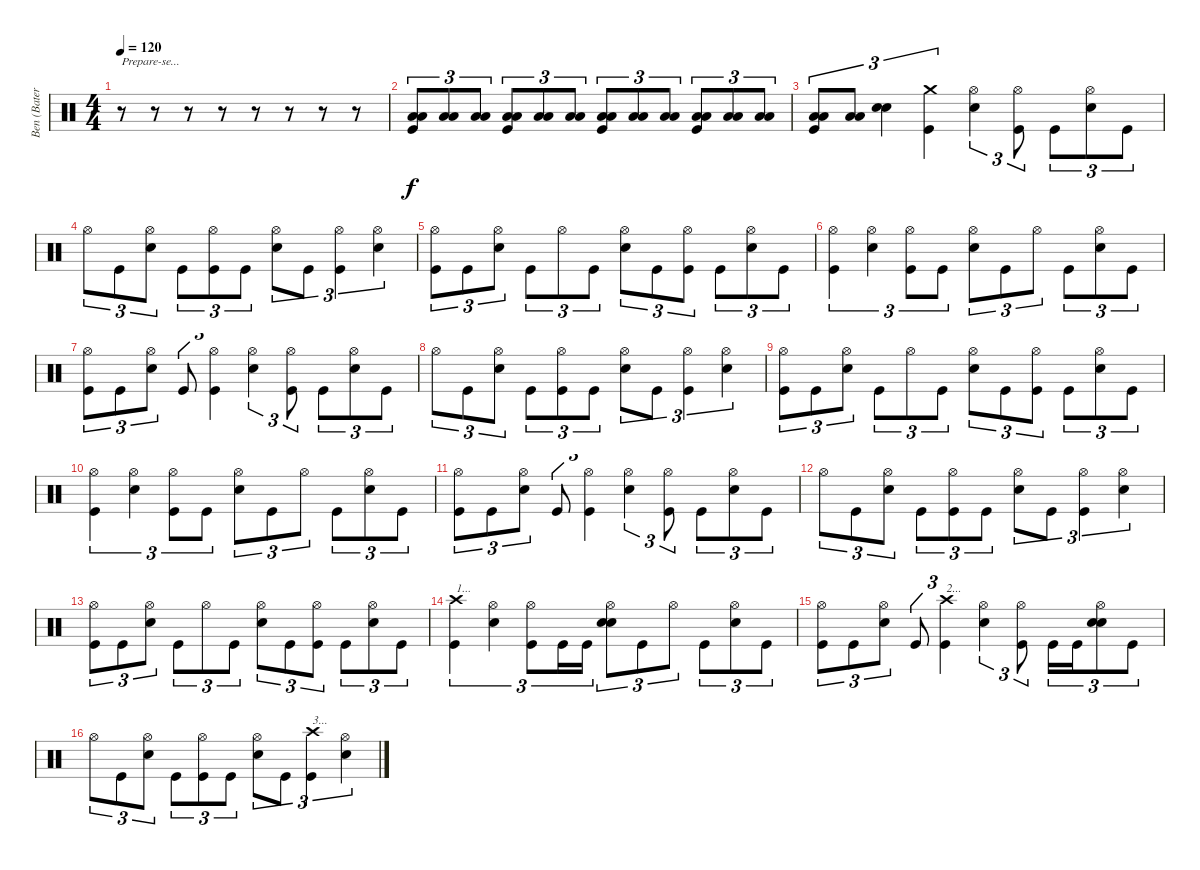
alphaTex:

\track ("Ben (Bateria)" "Ben (Bater") {instrument percussion}
\staff {score}
\articulation defaults
\ts (4 4)
\tempo 120
\clef neutral
\ks c
r.8{txt "Prepare-se..." dy f} r.8 r.8 r.8 r.8 r.8 r.8 r.8 |
("Kick (hit)" "Low Tom (hit)" "Low Tom (hit)").8{tu (3 2) bu 30} ("Low Tom (hit)" "Low Tom (hit)").8{tu (3 2)} ("Low Tom (hit)" "Low Tom (hit)").8{tu (3 2) bu 30} ("Kick (hit)" "Low Tom (hit)" "Low Tom (hit)").8{tu (3 2)} ("Low Tom (hit)" "Low Tom (hit)").8{tu (3 2)} ("Low Tom (hit)" "Low Tom (hit)").8{tu (3 2)} ("Kick (hit)" "Low Tom (hit)" "Low Tom (hit)").8{tu (3 2) bu 30} ("Low Tom (hit)" "Low Tom (hit)").8{tu (3 2)} ("Low Tom (hit)" "Low Tom (hit)").8{tu (3 2)} ("Kick (hit)" "Low Tom (hit)" "Low Tom (hit)").8{tu (3 2) bu 30} ("Low Tom (hit)" "Low Tom (hit)").8{tu (3 2)} ("Low Tom (hit)" "Low Tom (hit)").8{tu (3 2)} |
("Kick (hit)" "Low Tom (hit)" "Low Tom (hit)").8{tu (3 2) bu 30} ("Low Tom (hit)" "Low Tom (hit)").8{tu (3 2)} ("Snare (hit) 2" "Snare (hit) 2").4{tu (3 2) bu 60} ("Kick (hit)" "Crash medium (hit)").4{tu (3 2)} ("Snare (hit) 2" "Hi-Hat (open)").4{tu (3 2)} ("Kick (hit)" "Hi-Hat (open)").8{tu (3 2)} "Kick (hit)".8{tu (3 2)} ("Snare (hit) 2" "Hi-Hat (open)").8{tu (3 2)} "Kick (hit)".8{tu (3 2)} |
"Hi-Hat (open)".8{tu (3 2)} "Kick (hit)".8{tu (3 2)} ("Snare (hit) 2" "Hi-Hat (open)").8{tu (3 2)} "Kick (hit)".8{tu (3 2)} ("Kick (hit)" "Hi-Hat (open)").8{tu (3 2)} "Kick (hit)".8{tu (3 2)} ("Snare (hit) 2" "Hi-Hat (open)").8{tu (3 2)} "Kick (hit)".8{tu (3 2)} ("Kick (hit)" "Hi-Hat (open)").4{tu (3 2)} ("Snare (hit) 2" "Hi-Hat (open)").4{tu (3 2)} |
("Kick (hit)" "Hi-Hat (open)").8{tu (3 2)} "Kick (hit)".8{tu (3 2)} ("Snare (hit) 2" "Hi-Hat (open)").8{tu (3 2)} "Kick (hit)".8{tu (3 2)} "Hi-Hat (open)".8{tu (3 2)} "Kick (hit)".8{tu (3 2)} ("Snare (hit) 2" "Hi-Hat (open)").8{tu (3 2)} "Kick (hit)".8{tu (3 2)} ("Kick (hit)" "Hi-Hat (open)").8{tu (3 2)} "Kick (hit)".8{tu (3 2)} ("Snare (hit) 2" "Hi-Hat (open)").8{tu (3 2)} "Kick (hit)".8{tu (3 2)} |
("Kick (hit)" "Hi-Hat (open)").4{tu (3 2)} ("Snare (hit) 2" "Hi-Hat (open)").4{tu (3 2)} ("Kick (hit)" "Hi-Hat (open)").8{tu (3 2)} "Kick (hit)".8{tu (3 2)} ("Snare (hit) 2" "Hi-Hat (open)").8{tu (3 2)} "Kick (hit)".8{tu (3 2)} "Hi-Hat (open)".8{tu (3 2)} "Kick (hit)".8{tu (3 2)} ("Snare (hit) 2" "Hi-Hat (open)").8{tu (3 2)} "Kick (hit)".8{tu (3 2)} |
("Kick (hit)" "Hi-Hat (open)").8{tu (3 2)} "Kick (hit)".8{tu (3 2)} ("Snare (hit) 2" "Hi-Hat (open)").8{tu (3 2)} "Kick (hit)".8{tu (3 2)} ("Kick (hit)" "Hi-Hat (open)").4{tu (3 2)} ("Snare (hit) 2" "Hi-Hat (open)").4{tu (3 2)} ("Kick (hit)" "Hi-Hat (open)").8{tu (3 2)} "Kick (hit)".8{tu (3 2)} ("Snare (hit) 2" "Hi-Hat (open)").8{tu (3 2)} "Kick (hit)".8{tu (3 2)} |
"Hi-Hat (open)".8{tu (3 2)} "Kick (hit)".8{tu (3 2)} ("Snare (hit) 2" "Hi-Hat (open)").8{tu (3 2)} "Kick (hit)".8{tu (3 2)} ("Kick (hit)" "Hi-Hat (open)").8{tu (3 2)} "Kick (hit)".8{tu (3 2)} ("Snare (hit) 2" "Hi-Hat (open)").8{tu (3 2)} "Kick (hit)".8{tu (3 2)} ("Kick (hit)" "Hi-Hat (open)").4{tu (3 2)} ("Snare (hit) 2" "Hi-Hat (open)").4{tu (3 2)} |
("Kick (hit)" "Hi-Hat (open)").8{tu (3 2)} "Kick (hit)".8{tu (3 2)} ("Snare (hit) 2" "Hi-Hat (open)").8{tu (3 2)} "Kick (hit)".8{tu (3 2)} "Hi-Hat (open)".8{tu (3 2)} "Kick (hit)".8{tu (3 2)} ("Snare (hit) 2" "Hi-Hat (open)").8{tu (3 2)} "Kick (hit)".8{tu (3 2)} ("Kick (hit)" "Hi-Hat (open)").8{tu (3 2)} "Kick (hit)".8{tu (3 2)} ("Snare (hit) 2" "Hi-Hat (open)").8{tu (3 2)} "Kick (hit)".8{tu (3 2)} |
("Kick (hit)" "Hi-Hat (open)").4{tu (3 2)} ("Snare (hit) 2" "Hi-Hat (open)").4{tu (3 2)} ("Kick (hit)" "Hi-Hat (open)").8{tu (3 2)} "Kick (hit)".8{tu (3 2)} ("Snare (hit) 2" "Hi-Hat (open)").8{tu (3 2)} "Kick (hit)".8{tu (3 2)} "Hi-Hat (open)".8{tu (3 2)} "Kick (hit)".8{tu (3 2)} ("Snare (hit) 2" "Hi-Hat (open)").8{tu (3 2)} "Kick (hit)".8{tu (3 2)} |
("Kick (hit)" "Hi-Hat (open)").8{tu (3 2)} "Kick (hit)".8{tu (3 2)} ("Snare (hit) 2" "Hi-Hat (open)").8{tu (3 2)} "Kick (hit)".8{tu (3 2)} ("Kick (hit)" "Hi-Hat (open)").4{tu (3 2)} ("Snare (hit) 2" "Hi-Hat (open)").4{tu (3 2)} ("Kick (hit)" "Hi-Hat (open)").8{tu (3 2)} "Kick (hit)".8{tu (3 2)} ("Snare (hit) 2" "Hi-Hat (open)").8{tu (3 2)} "Kick (hit)".8{tu (3 2)} |
"Hi-Hat (open)".8{tu (3 2)} "Kick (hit)".8{tu (3 2)} ("Snare (hit) 2" "Hi-Hat (open)").8{tu (3 2)} "Kick (hit)".8{tu (3 2)} ("Kick (hit)" "Hi-Hat (open)").8{tu (3 2)} "Kick (hit)".8{tu (3 2)} ("Snare (hit) 2" "Hi-Hat (open)").8{tu (3 2)} "Kick (hit)".8{tu (3 2)} ("Kick (hit)" "Hi-Hat (open)").4{tu (3 2)} ("Snare (hit) 2" "Hi-Hat (open)").4{tu (3 2)} |
("Kick (hit)" "Hi-Hat (open)").8{tu (3 2)} "Kick (hit)".8{tu (3 2)} ("Snare (hit) 2" "Hi-Hat (open)").8{tu (3 2)} "Kick (hit)".8{tu (3 2)} "Hi-Hat (open)".8{tu (3 2)} "Kick (hit)".8{tu (3 2)} ("Snare (hit) 2" "Hi-Hat (open)").8{tu (3 2)} "Kick (hit)".8{tu (3 2)} ("Kick (hit)" "Hi-Hat (open)").8{tu (3 2)} "Kick (hit)".8{tu (3 2)} ("Snare (hit) 2" "Hi-Hat (open)").8{tu (3 2)} "Kick (hit)".8{tu (3 2)} |
("Kick (hit)" "Crash high (hit)").4{tu (3 2) txt "1..."} ("Snare (hit) 2" "Hi-Hat (open)").4{tu (3 2)} ("Kick (hit)" "Hi-Hat (open)").8{tu (3 2)} "Kick (hit)".16{tu (3 2)} "Kick (hit)".16{tu (3 2)} ("Snare (hit) 2" "Snare (hit) 2" "Hi-Hat (open)").8{tu (3 2) bu 60} "Kick (hit)".8{tu (3 2)} "Hi-Hat (open)".8{tu (3 2)} "Kick (hit)".8{tu (3 2)} ("Snare (hit) 2" "Hi-Hat (open)").8{tu (3 2)} "Kick (hit)".8{tu (3 2)} |
("Kick (hit)" "Hi-Hat (open)").8{tu (3 2)} "Kick (hit)".8{tu (3 2)} ("Snare (hit) 2" "Hi-Hat (open)").8{tu (3 2)} "Kick (hit)".8{tu (3 2)} ("Kick (hit)" "Crash high (hit)").4{tu (3 2) txt "2..."} ("Snare (hit) 2" "Hi-Hat (open)").4{tu (3 2)} ("Kick (hit)" "Hi-Hat (open)").8{tu (3 2)} "Kick (hit)".16{tu (3 2)} "Kick (hit)".16{tu (3 2)} ("Snare (hit) 2" "Snare (hit) 2" "Hi-Hat (open)").8{tu (3 2) bu 60} "Kick (hit)".8{tu (3 2)} |
"Hi-Hat (open)".8{tu (3 2)} "Kick (hit)".8{tu (3 2)} ("Snare (hit) 2" "Hi-Hat (open)").8{tu (3 2)} "Kick (hit)".8{tu (3 2)} ("Kick (hit)" "Hi-Hat (open)").8{tu (3 2)} "Kick (hit)".8{tu (3 2)} ("Snare (hit) 2" "Hi-Hat (open)").8{tu (3 2)} "Kick (hit)".8{tu (3 2)} ("Kick (hit)" "Crash high (hit)").4{tu (3 2) txt "3..."} ("Snare (hit) 2" "Hi-Hat (open)").4{tu (3 2)}
